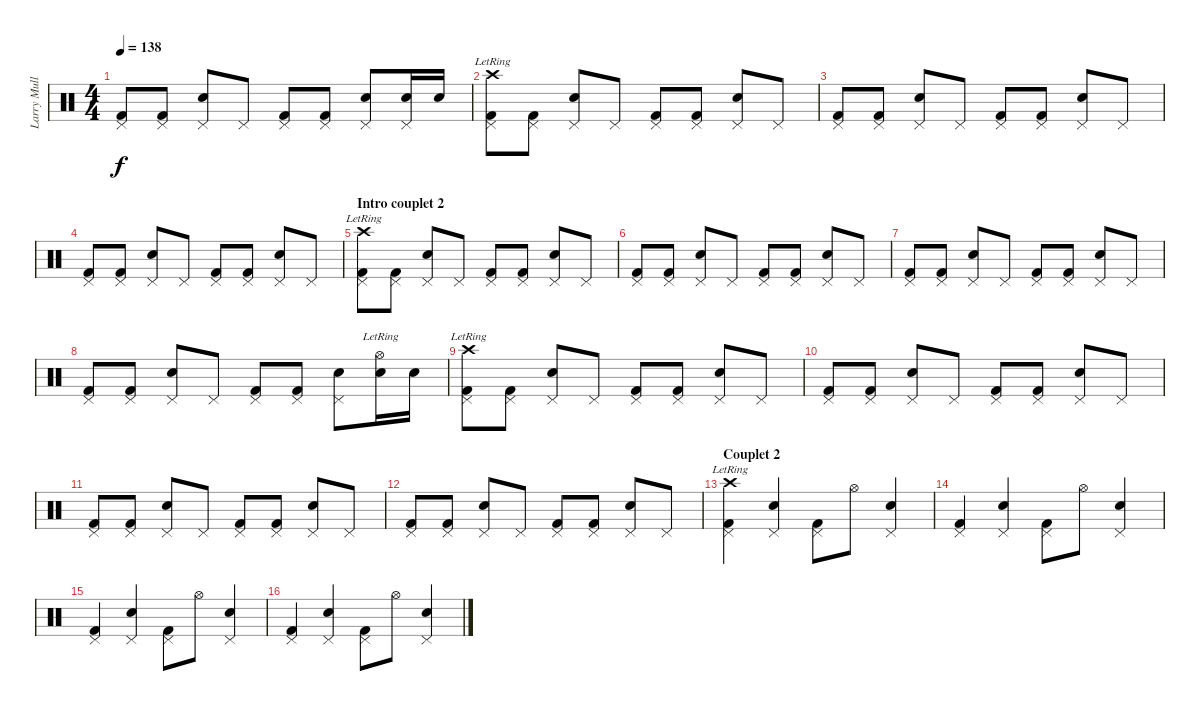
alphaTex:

\track ("Larry Mullen" "Larry Mull") {instrument percussion}
\staff {score}
\articulation defaults
\ts (4 4)
\tempo 138
\clef neutral
\ks c
("Kick (hit) 2" "Pedal Hi-Hat (hit)").8{dy f} ("Kick (hit) 2" "Pedal Hi-Hat (hit)").8 ("Snare (hit) 2" "Pedal Hi-Hat (hit)").8 "Pedal Hi-Hat (hit)".8 ("Kick (hit) 2" "Pedal Hi-Hat (hit)").8 ("Kick (hit) 2" "Pedal Hi-Hat (hit)").8 ("Snare (hit) 2" "Pedal Hi-Hat (hit)").8 ("Snare (hit) 2" "Pedal Hi-Hat (hit)").16 "Snare (hit) 2".16 |
("Kick (hit) 2" "Crash high (hit)"{lr} "Pedal Hi-Hat (hit)").8 ("Kick (hit) 2" "Pedal Hi-Hat (hit)").8 ("Snare (hit) 2" "Pedal Hi-Hat (hit)").8 "Pedal Hi-Hat (hit)".8 ("Kick (hit) 2" "Pedal Hi-Hat (hit)").8 ("Kick (hit) 2" "Pedal Hi-Hat (hit)").8 ("Snare (hit) 2" "Pedal Hi-Hat (hit)").8 "Pedal Hi-Hat (hit)".8 |
("Kick (hit) 2" "Pedal Hi-Hat (hit)").8 ("Kick (hit) 2" "Pedal Hi-Hat (hit)").8 ("Snare (hit) 2" "Pedal Hi-Hat (hit)").8 "Pedal Hi-Hat (hit)".8 ("Kick (hit) 2" "Pedal Hi-Hat (hit)").8 ("Kick (hit) 2" "Pedal Hi-Hat (hit)").8 ("Snare (hit) 2" "Pedal Hi-Hat (hit)").8 "Pedal Hi-Hat (hit)".8 |
("Kick (hit) 2" "Pedal Hi-Hat (hit)").8 ("Kick (hit) 2" "Pedal Hi-Hat (hit)").8 ("Snare (hit) 2" "Pedal Hi-Hat (hit)").8 "Pedal Hi-Hat (hit)".8 ("Kick (hit) 2" "Pedal Hi-Hat (hit)").8 ("Kick (hit) 2" "Pedal Hi-Hat (hit)").8 ("Snare (hit) 2" "Pedal Hi-Hat (hit)").8 "Pedal Hi-Hat (hit)".8 |
\section ("" "Intro couplet 2")
("Kick (hit) 2" "Crash high (hit)"{lr} "Pedal Hi-Hat (hit)").8 ("Kick (hit) 2" "Pedal Hi-Hat (hit)").8 ("Snare (hit) 2" "Pedal Hi-Hat (hit)").8 "Pedal Hi-Hat (hit)".8 ("Kick (hit) 2" "Pedal Hi-Hat (hit)").8 ("Kick (hit) 2" "Pedal Hi-Hat (hit)").8 ("Snare (hit) 2" "Pedal Hi-Hat (hit)").8 "Pedal Hi-Hat (hit)".8 |
("Kick (hit) 2" "Pedal Hi-Hat (hit)").8 ("Kick (hit) 2" "Pedal Hi-Hat (hit)").8 ("Snare (hit) 2" "Pedal Hi-Hat (hit)").8 "Pedal Hi-Hat (hit)".8 ("Kick (hit) 2" "Pedal Hi-Hat (hit)").8 ("Kick (hit) 2" "Pedal Hi-Hat (hit)").8 ("Snare (hit) 2" "Pedal Hi-Hat (hit)").8 "Pedal Hi-Hat (hit)".8 |
("Kick (hit) 2" "Pedal Hi-Hat (hit)").8 ("Kick (hit) 2" "Pedal Hi-Hat (hit)").8 ("Snare (hit) 2" "Pedal Hi-Hat (hit)").8 "Pedal Hi-Hat (hit)".8 ("Kick (hit) 2" "Pedal Hi-Hat (hit)").8 ("Kick (hit) 2" "Pedal Hi-Hat (hit)").8 ("Snare (hit) 2" "Pedal Hi-Hat (hit)").8 "Pedal Hi-Hat (hit)".8 |
("Kick (hit) 2" "Pedal Hi-Hat (hit)").8 ("Kick (hit) 2" "Pedal Hi-Hat (hit)").8 ("Snare (hit) 2" "Pedal Hi-Hat (hit)").8 "Pedal Hi-Hat (hit)".8 ("Kick (hit) 2" "Pedal Hi-Hat (hit)").8 ("Kick (hit) 2" "Pedal Hi-Hat (hit)").8 ("Snare (hit) 2" "Pedal Hi-Hat (hit)").8 ("Snare (hit) 2" "Hi-Hat (open)"{lr}).16 "Snare (hit) 2".16 |
("Kick (hit) 2" "Crash high (hit)"{lr} "Pedal Hi-Hat (hit)").8 ("Kick (hit) 2" "Pedal Hi-Hat (hit)").8 ("Snare (hit) 2" "Pedal Hi-Hat (hit)").8 "Pedal Hi-Hat (hit)".8 ("Kick (hit) 2" "Pedal Hi-Hat (hit)").8 ("Kick (hit) 2" "Pedal Hi-Hat (hit)").8 ("Snare (hit) 2" "Pedal Hi-Hat (hit)").8 "Pedal Hi-Hat (hit)".8 |
("Kick (hit) 2" "Pedal Hi-Hat (hit)").8 ("Kick (hit) 2" "Pedal Hi-Hat (hit)").8 ("Snare (hit) 2" "Pedal Hi-Hat (hit)").8 "Pedal Hi-Hat (hit)".8 ("Kick (hit) 2" "Pedal Hi-Hat (hit)").8 ("Kick (hit) 2" "Pedal Hi-Hat (hit)").8 ("Snare (hit) 2" "Pedal Hi-Hat (hit)").8 "Pedal Hi-Hat (hit)".8 |
("Kick (hit) 2" "Pedal Hi-Hat (hit)").8 ("Kick (hit) 2" "Pedal Hi-Hat (hit)").8 ("Snare (hit) 2" "Pedal Hi-Hat (hit)").8 "Pedal Hi-Hat (hit)".8 ("Kick (hit) 2" "Pedal Hi-Hat (hit)").8 ("Kick (hit) 2" "Pedal Hi-Hat (hit)").8 ("Snare (hit) 2" "Pedal Hi-Hat (hit)").8 "Pedal Hi-Hat (hit)".8 |
("Kick (hit) 2" "Pedal Hi-Hat (hit)").8 ("Kick (hit) 2" "Pedal Hi-Hat (hit)").8 ("Snare (hit) 2" "Pedal Hi-Hat (hit)").8 "Pedal Hi-Hat (hit)".8 ("Kick (hit) 2" "Pedal Hi-Hat (hit)").8 ("Kick (hit) 2" "Pedal Hi-Hat (hit)").8 ("Snare (hit) 2" "Pedal Hi-Hat (hit)").8 "Pedal Hi-Hat (hit)".8 |
\section ("" "Couplet 2")
("Kick (hit) 2" "Pedal Hi-Hat (hit)" "Crash high (hit)"{lr}).4 ("Snare (hit) 2" "Pedal Hi-Hat (hit)").4 ("Kick (hit) 2" "Pedal Hi-Hat (hit)").8 "Hi-Hat (open)".8 ("Snare (hit) 2" "Pedal Hi-Hat (hit)").4 |
("Kick (hit) 2" "Pedal Hi-Hat (hit)").4 ("Snare (hit) 2" "Pedal Hi-Hat (hit)").4 ("Kick (hit) 2" "Pedal Hi-Hat (hit)").8 "Hi-Hat (open)".8 ("Snare (hit) 2" "Pedal Hi-Hat (hit)").4 |
("Kick (hit) 2" "Pedal Hi-Hat (hit)").4 ("Snare (hit) 2" "Pedal Hi-Hat (hit)").4 ("Kick (hit) 2" "Pedal Hi-Hat (hit)").8 "Hi-Hat (open)".8 ("Snare (hit) 2" "Pedal Hi-Hat (hit)").4 |
("Kick (hit) 2" "Pedal Hi-Hat (hit)").4 ("Snare (hit) 2" "Pedal Hi-Hat (hit)").4 ("Kick (hit) 2" "Pedal Hi-Hat (hit)").8 "Hi-Hat (open)".8 ("Snare (hit) 2" "Pedal Hi-Hat (hit)").4
